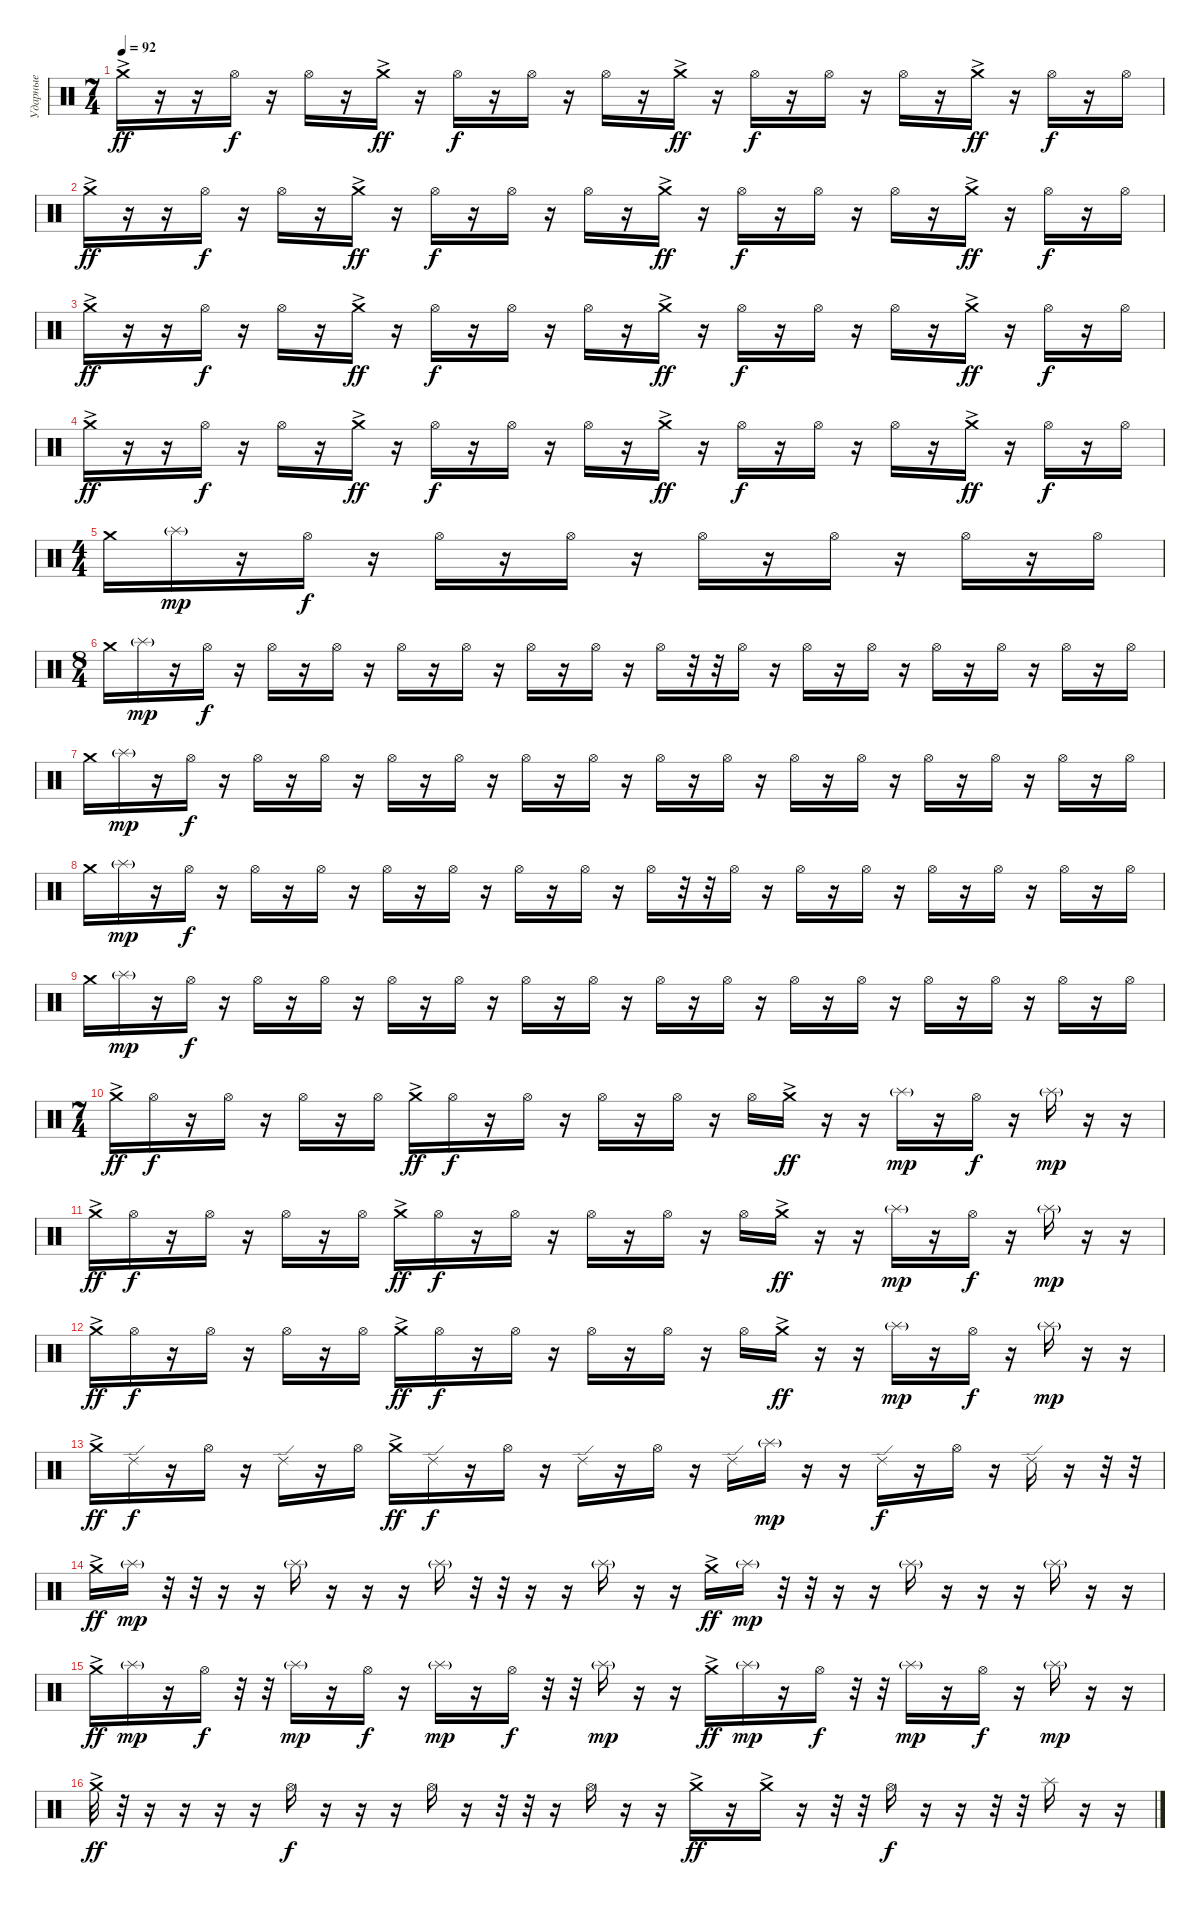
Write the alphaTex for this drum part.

\track ("Ударные" "Ударные") {instrument percussion}
\staff {score}
\articulation defaults
\ts (7 4)
\tempo 92
\clef neutral
\ks c "Crash medium (hit)"{ac}.16{dy ff}
r.16 r.16 "Hi-Hat (open)".16{dy f} r.16 "Hi-Hat (open)".16 r.16 "Crash medium (hit)"{ac}.16{dy ff} r.16 "Hi-Hat (open)".16{dy f} r.16 "Hi-Hat (open)".16 r.16 "Hi-Hat (open)".16 r.16 "Crash medium (hit)"{ac}.16{dy ff} r.16 "Hi-Hat (open)".16{dy f} r.16 "Hi-Hat (open)".16 r.16 "Hi-Hat (open)".16 r.16 "Crash medium (hit)"{ac}.16{dy ff} r.16 "Hi-Hat (open)".16{dy f} r.16 "Hi-Hat (open)".16 |
"Crash medium (hit)"{ac}.16{dy ff} r.16 r.16 "Hi-Hat (open)".16{dy f} r.16 "Hi-Hat (open)".16 r.16 "Crash medium (hit)"{ac}.16{dy ff} r.16 "Hi-Hat (open)".16{dy f} r.16 "Hi-Hat (open)".16 r.16 "Hi-Hat (open)".16 r.16 "Crash medium (hit)"{ac}.16{dy ff} r.16 "Hi-Hat (open)".16{dy f} r.16 "Hi-Hat (open)".16 r.16 "Hi-Hat (open)".16 r.16 "Crash medium (hit)"{ac}.16{dy ff} r.16 "Hi-Hat (open)".16{dy f} r.16 "Hi-Hat (open)".16 |
"Crash medium (hit)"{ac}.16{dy ff} r.16 r.16 "Hi-Hat (open)".16{dy f} r.16 "Hi-Hat (open)".16 r.16 "Crash medium (hit)"{ac}.16{dy ff} r.16 "Hi-Hat (open)".16{dy f} r.16 "Hi-Hat (open)".16 r.16 "Hi-Hat (open)".16 r.16 "Crash medium (hit)"{ac}.16{dy ff} r.16 "Hi-Hat (open)".16{dy f} r.16 "Hi-Hat (open)".16 r.16 "Hi-Hat (open)".16 r.16 "Crash medium (hit)"{ac}.16{dy ff} r.16 "Hi-Hat (open)".16{dy f} r.16 "Hi-Hat (open)".16 |
"Crash medium (hit)"{ac}.16{dy ff} r.16 r.16 "Hi-Hat (open)".16{dy f} r.16 "Hi-Hat (open)".16 r.16 "Crash medium (hit)"{ac}.16{dy ff} r.16 "Hi-Hat (open)".16{dy f} r.16 "Hi-Hat (open)".16 r.16 "Hi-Hat (open)".16 r.16 "Crash medium (hit)"{ac}.16{dy ff} r.16 "Hi-Hat (open)".16{dy f} r.16 "Hi-Hat (open)".16 r.16 "Hi-Hat (open)".16 r.16 "Crash medium (hit)"{ac}.16{dy ff} r.16 "Hi-Hat (open)".16{dy f} r.16 "Hi-Hat (open)".16 |
\ts (4 4)
"Crash medium (hit)".16 "Splash (hit)"{g}.16{dy mp} r.16 "Hi-Hat (open)".16{dy f} r.16 "Hi-Hat (open)".16 r.16 "Hi-Hat (open)".16 r.16 "Hi-Hat (open)".16 r.16 "Hi-Hat (open)".16 r.16 "Hi-Hat (open)".16 r.16 "Hi-Hat (open)".16 |
\ts (8 4)
"Crash medium (hit)".16 "Splash (hit)"{g}.16{dy mp} r.16 "Hi-Hat (open)".16{dy f} r.16 "Hi-Hat (open)".16 r.16 "Hi-Hat (open)".16 r.16 "Hi-Hat (open)".16 r.16 "Hi-Hat (open)".16 r.16 "Hi-Hat (open)".16 r.16 "Hi-Hat (open)".16 r.16 "Hi-Hat (open)".16 r.32 r.32 "Hi-Hat (open)".16 r.16 "Hi-Hat (open)".16 r.16 "Hi-Hat (open)".16 r.16 "Hi-Hat (open)".16 r.16 "Hi-Hat (open)".16 r.16 "Hi-Hat (open)".16 r.16 "Hi-Hat (open)".16 |
"Crash medium (hit)".16 "Splash (hit)"{g}.16{dy mp} r.16 "Hi-Hat (open)".16{dy f} r.16 "Hi-Hat (open)".16 r.16 "Hi-Hat (open)".16 r.16 "Hi-Hat (open)".16 r.16 "Hi-Hat (open)".16 r.16 "Hi-Hat (open)".16 r.16 "Hi-Hat (open)".16 r.16 "Hi-Hat (open)".16 r.16 "Hi-Hat (open)".16 r.16 "Hi-Hat (open)".16 r.16 "Hi-Hat (open)".16 r.16 "Hi-Hat (open)".16 r.16 "Hi-Hat (open)".16 r.16 "Hi-Hat (open)".16 r.16 "Hi-Hat (open)".16 |
"Crash medium (hit)".16 "Splash (hit)"{g}.16{dy mp} r.16 "Hi-Hat (open)".16{dy f} r.16 "Hi-Hat (open)".16 r.16 "Hi-Hat (open)".16 r.16 "Hi-Hat (open)".16 r.16 "Hi-Hat (open)".16 r.16 "Hi-Hat (open)".16 r.16 "Hi-Hat (open)".16 r.16 "Hi-Hat (open)".16 r.32 r.32 "Hi-Hat (open)".16 r.16 "Hi-Hat (open)".16 r.16 "Hi-Hat (open)".16 r.16 "Hi-Hat (open)".16 r.16 "Hi-Hat (open)".16 r.16 "Hi-Hat (open)".16 r.16 "Hi-Hat (open)".16 |
"Crash medium (hit)".16 "Splash (hit)"{g}.16{dy mp} r.16 "Hi-Hat (open)".16{dy f} r.16 "Hi-Hat (open)".16 r.16 "Hi-Hat (open)".16 r.16 "Hi-Hat (open)".16 r.16 "Hi-Hat (open)".16 r.16 "Hi-Hat (open)".16 r.16 "Hi-Hat (open)".16 r.16 "Hi-Hat (open)".16 r.16 "Hi-Hat (open)".16 r.16 "Hi-Hat (open)".16 r.16 "Hi-Hat (open)".16 r.16 "Hi-Hat (open)".16 r.16 "Hi-Hat (open)".16 r.16 "Hi-Hat (open)".16 r.16 "Hi-Hat (open)".16 |
\ts (7 4)
"Crash medium (hit)"{ac}.16{dy ff} "Hi-Hat (open)".16{dy f} r.16 "Hi-Hat (open)".16 r.16 "Hi-Hat (open)".16 r.16 "Hi-Hat (open)".16 "Crash medium (hit)"{ac}.16{dy ff} "Hi-Hat (open)".16{dy f} r.16 "Hi-Hat (open)".16 r.16 "Hi-Hat (open)".16 r.16 "Hi-Hat (open)".16 r.16 "Hi-Hat (open)".16 "Crash medium (hit)"{ac}.16{dy ff} r.16 r.16 "Splash (hit)"{g}.16{dy mp} r.16 "Hi-Hat (open)".16{dy f} r.16 "Splash (hit)"{g}.16{dy mp} r.16 r.16 |
"Crash medium (hit)"{ac}.16{dy ff} "Hi-Hat (open)".16{dy f} r.16 "Hi-Hat (open)".16 r.16 "Hi-Hat (open)".16 r.16 "Hi-Hat (open)".16 "Crash medium (hit)"{ac}.16{dy ff} "Hi-Hat (open)".16{dy f} r.16 "Hi-Hat (open)".16 r.16 "Hi-Hat (open)".16 r.16 "Hi-Hat (open)".16 r.16 "Hi-Hat (open)".16 "Crash medium (hit)"{ac}.16{dy ff} r.16 r.16 "Splash (hit)"{g}.16{dy mp} r.16 "Hi-Hat (open)".16{dy f} r.16 "Splash (hit)"{g}.16{dy mp} r.16 r.16 |
"Crash medium (hit)"{ac}.16{dy ff} "Hi-Hat (open)".16{dy f} r.16 "Hi-Hat (open)".16 r.16 "Hi-Hat (open)".16 r.16 "Hi-Hat (open)".16 "Crash medium (hit)"{ac}.16{dy ff} "Hi-Hat (open)".16{dy f} r.16 "Hi-Hat (open)".16 r.16 "Hi-Hat (open)".16 r.16 "Hi-Hat (open)".16 r.16 "Hi-Hat (open)".16 "Crash medium (hit)"{ac}.16{dy ff} r.16 r.16 "Splash (hit)"{g}.16{dy mp} r.16 "Hi-Hat (open)".16{dy f} r.16 "Splash (hit)"{g}.16{dy mp} r.16 r.16 |
"Crash medium (hit)"{ac}.16{dy ff} "Ride (edge) 2".16{dy f} r.16 "Hi-Hat (open)".16 r.16 "Ride (edge) 2".16 r.16 "Hi-Hat (open)".16 "Crash medium (hit)"{ac}.16{dy ff} "Ride (edge) 2".16{dy f} r.16 "Hi-Hat (open)".16 r.16 "Ride (edge) 2".16 r.16 "Hi-Hat (open)".16 r.16 "Ride (edge) 2".16 "Splash (hit)"{g}.16{dy mp} r.16 r.16 "Ride (edge) 2".16{dy f} r.16 "Hi-Hat (open)".16 r.16 "Ride (edge) 2".16 r.16 r.32 r.32 |
"Crash medium (hit)"{ac}.16{dy ff} "Splash (hit)"{g}.16{dy mp} r.32 r.32 r.16 r.16 "Splash (hit)"{g}.16 r.16 r.16 r.16 "Splash (hit)"{g}.16 r.32 r.32 r.16 r.16 "Splash (hit)"{g}.16 r.16 r.16 "Crash medium (hit)"{ac}.16{dy ff} "Splash (hit)"{g}.16{dy mp} r.32 r.32 r.16 r.16 "Splash (hit)"{g}.16 r.16 r.16 r.16 "Splash (hit)"{g}.16 r.16 r.16 |
"Crash medium (hit)"{ac}.16{dy ff} "Splash (hit)"{g}.16{dy mp} r.16 "Hi-Hat (open)".16{dy f} r.32 r.32 "Splash (hit)"{g}.16{dy mp} r.16 "Hi-Hat (open)".16{dy f} r.16 "Splash (hit)"{g}.16{dy mp} r.16 "Hi-Hat (open)".16{dy f} r.32 r.32 "Splash (hit)"{g}.16{dy mp} r.16 r.16 "Crash medium (hit)"{ac}.16{dy ff} "Splash (hit)"{g}.16{dy mp} r.16 "Hi-Hat (open)".16{dy f} r.32 r.32 "Splash (hit)"{g}.16{dy mp} r.16 "Hi-Hat (open)".16{dy f} r.16 "Splash (hit)"{g}.16{dy mp} r.16 r.16 |
"Crash medium (hit)"{ac}.32{dy ff} r.32 r.16 r.16 r.16 r.16 "Hi-Hat (open)".16{dy f} r.16 r.16 r.16 "Hi-Hat (open)".16 r.16 r.32 r.32 r.16 "Hi-Hat (open)".16 r.16 r.16 "Crash medium (hit)"{ac}.16{dy ff} r.16 "Crash medium (hit)"{ac}.16 r.16 r.32 r.32 "Hi-Hat (open)".16{dy f} r.16 r.16 r.32 r.32 "Splash (hit)".16 r.16 r.16
